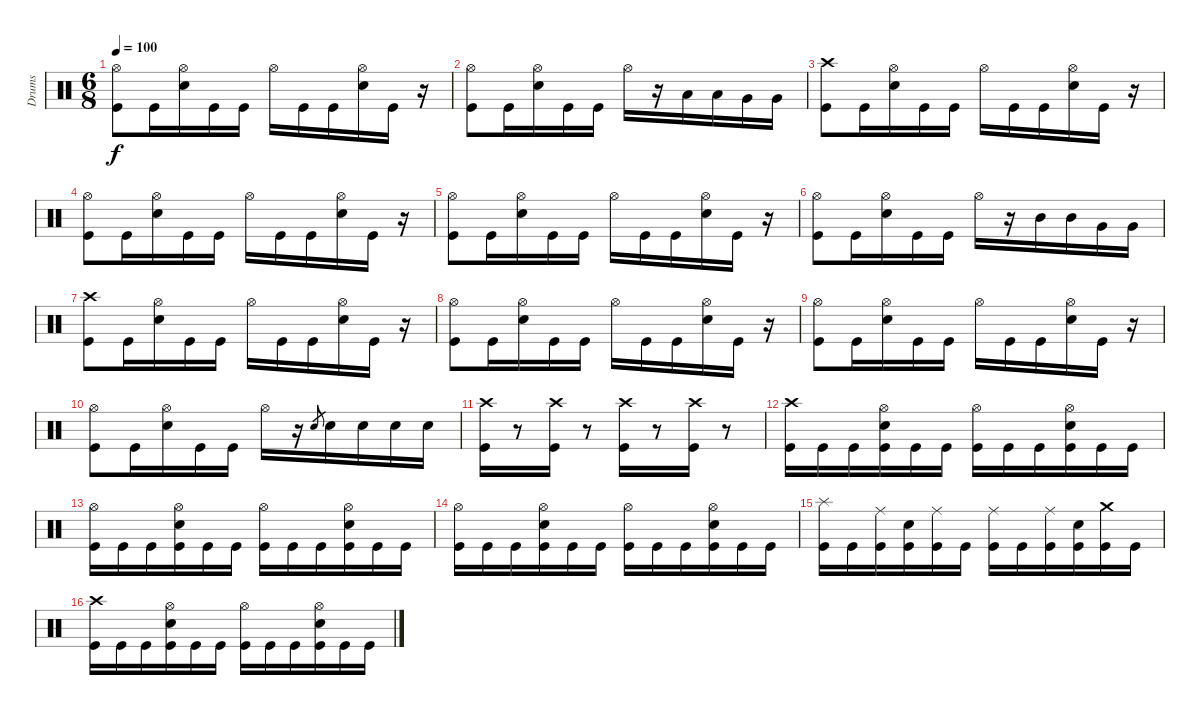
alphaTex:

\track ("Drums" "Drums") {instrument percussion}
\staff {score}
\articulation defaults
\ts (6 8)
\tempo 100
\clef neutral
\ks c
("Hi-Hat (open)" "Kick (hit)").8{dy f} "Kick (hit)".16 ("Hi-Hat (open)" "Electric Snare (hit)").16 "Kick (hit)".16 "Kick (hit)".16 "Hi-Hat (open)".16 "Kick (hit)".16 "Kick (hit)".16 ("Hi-Hat (open)" "Electric Snare (hit)").16 "Kick (hit)".16 r.16 |
("Hi-Hat (open)" "Kick (hit)").8 "Kick (hit)".16 ("Hi-Hat (open)" "Electric Snare (hit)").16 "Kick (hit)".16 "Kick (hit)".16 "Hi-Hat (open)".16 r.16 "Low Tom (hit)".16 "Low Tom (hit)".16 "Very Low Tom (hit)".16 "Very Low Tom (hit)".16 |
("Crash high (hit)" "Kick (hit)").8 "Kick (hit)".16 ("Hi-Hat (open)" "Electric Snare (hit)").16 "Kick (hit)".16 "Kick (hit)".16 "Hi-Hat (open)".16 "Kick (hit)".16 "Kick (hit)".16 ("Hi-Hat (open)" "Electric Snare (hit)").16 "Kick (hit)".16 r.16 |
("Hi-Hat (open)" "Kick (hit)").8 "Kick (hit)".16 ("Hi-Hat (open)" "Electric Snare (hit)").16 "Kick (hit)".16 "Kick (hit)".16 "Hi-Hat (open)".16 "Kick (hit)".16 "Kick (hit)".16 ("Hi-Hat (open)" "Electric Snare (hit)").16 "Kick (hit)".16 r.16 |
("Hi-Hat (open)" "Kick (hit)").8 "Kick (hit)".16 ("Hi-Hat (open)" "Electric Snare (hit)").16 "Kick (hit)".16 "Kick (hit)".16 "Hi-Hat (open)".16 "Kick (hit)".16 "Kick (hit)".16 ("Hi-Hat (open)" "Electric Snare (hit)").16 "Kick (hit)".16 r.16 |
("Hi-Hat (open)" "Kick (hit)").8 "Kick (hit)".16 ("Hi-Hat (open)" "Electric Snare (hit)").16 "Kick (hit)".16 "Kick (hit)".16 "Hi-Hat (open)".16 r.16 "Mid Tom (hit)".16 "Mid Tom (hit)".16 "Very Low Tom (hit)".16 "Very Low Tom (hit)".16 |
("Crash high (hit)" "Kick (hit)").8 "Kick (hit)".16 ("Hi-Hat (open)" "Electric Snare (hit)").16 "Kick (hit)".16 "Kick (hit)".16 "Hi-Hat (open)".16 "Kick (hit)".16 "Kick (hit)".16 ("Hi-Hat (open)" "Electric Snare (hit)").16 "Kick (hit)".16 r.16 |
("Hi-Hat (open)" "Kick (hit)").8 "Kick (hit)".16 ("Hi-Hat (open)" "Electric Snare (hit)").16 "Kick (hit)".16 "Kick (hit)".16 "Hi-Hat (open)".16 "Kick (hit)".16 "Kick (hit)".16 ("Hi-Hat (open)" "Electric Snare (hit)").16 "Kick (hit)".16 r.16 |
("Hi-Hat (open)" "Kick (hit)").8 "Kick (hit)".16 ("Hi-Hat (open)" "Electric Snare (hit)").16 "Kick (hit)".16 "Kick (hit)".16 "Hi-Hat (open)".16 "Kick (hit)".16 "Kick (hit)".16 ("Hi-Hat (open)" "Electric Snare (hit)").16 "Kick (hit)".16 r.16 |
("Hi-Hat (open)" "Kick (hit)").8 "Kick (hit)".16 ("Hi-Hat (open)" "Electric Snare (hit)").16 "Kick (hit)".16 "Kick (hit)".16 "Hi-Hat (open)".16 r.16 "Electric Snare (hit)".8{gr} "Electric Snare (hit)".16 "Electric Snare (hit)".16 "Electric Snare (hit)".16 "Electric Snare (hit)".16 |
("Crash high (hit)" "Kick (hit)").16 r.8 ("Crash high (hit)" "Kick (hit)").16 r.8 ("Crash high (hit)" "Kick (hit)").16 r.8 ("Crash high (hit)" "Kick (hit)").16 r.8 |
("Crash high (hit)" "Kick (hit)").16 "Kick (hit)".16 "Kick (hit)".16 ("Hi-Hat (open)" "Electric Snare (hit)" "Kick (hit)").16 "Kick (hit)".16 "Kick (hit)".16 ("Hi-Hat (open)" "Kick (hit)").16 "Kick (hit)".16 "Kick (hit)".16 ("Hi-Hat (open)" "Electric Snare (hit)" "Kick (hit)").16 "Kick (hit)".16 "Kick (hit)".16 |
("Hi-Hat (open)" "Kick (hit)").16 "Kick (hit)".16 "Kick (hit)".16 ("Hi-Hat (open)" "Electric Snare (hit)" "Kick (hit)").16 "Kick (hit)".16 "Kick (hit)".16 ("Hi-Hat (open)" "Kick (hit)").16 "Kick (hit)".16 "Kick (hit)".16 ("Hi-Hat (open)" "Electric Snare (hit)" "Kick (hit)").16 "Kick (hit)".16 "Kick (hit)".16 |
("Hi-Hat (open)" "Kick (hit)").16 "Kick (hit)".16 "Kick (hit)".16 ("Hi-Hat (open)" "Electric Snare (hit)" "Kick (hit)").16 "Kick (hit)".16 "Kick (hit)".16 ("Hi-Hat (open)" "Kick (hit)").16 "Kick (hit)".16 "Kick (hit)".16 ("Hi-Hat (open)" "Electric Snare (hit)" "Kick (hit)").16 "Kick (hit)".16 "Kick (hit)".16 |
("Splash (hit)" "Kick (hit)").16 "Kick (hit)".16 ("Ride (middle)" "Kick (hit)").16 ("Electric Snare (hit)" "Kick (hit)").16 ("Ride (middle)" "Kick (hit)").16 "Kick (hit)".16 ("Ride (middle)" "Kick (hit)").16 "Kick (hit)".16 ("Ride (middle)" "Kick (hit)").16 ("Electric Snare (hit)" "Kick (hit)").16 ("Crash medium (hit)" "Kick (hit)").16 "Kick (hit)".16 |
("Crash high (hit)" "Kick (hit)").16 "Kick (hit)".16 "Kick (hit)".16 ("Hi-Hat (open)" "Electric Snare (hit)" "Kick (hit)").16 "Kick (hit)".16 "Kick (hit)".16 ("Hi-Hat (open)" "Kick (hit)").16 "Kick (hit)".16 "Kick (hit)".16 ("Hi-Hat (open)" "Electric Snare (hit)" "Kick (hit)").16 "Kick (hit)".16 "Kick (hit)".16
